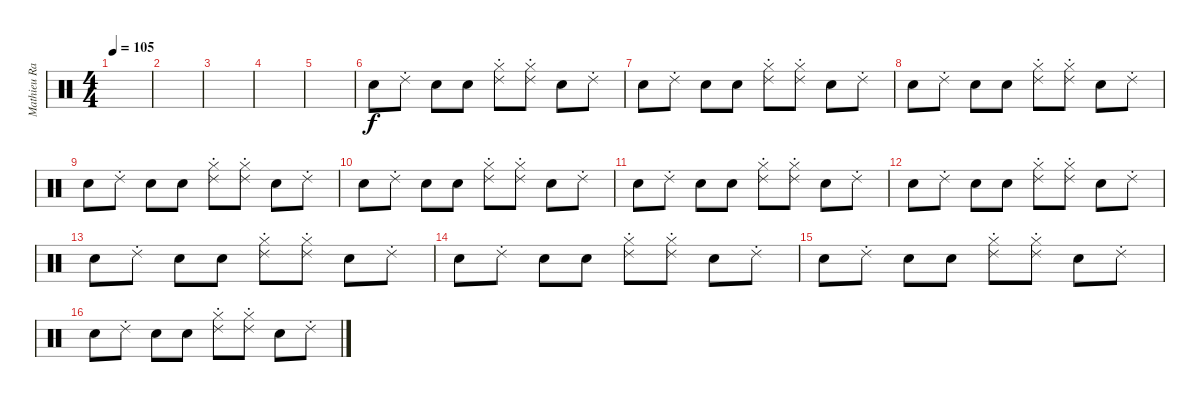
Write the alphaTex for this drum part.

\track ("Mathieu Rabaté (batterie)" "Mathieu Ra") {instrument percussion}
\staff {score}
\articulation defaults
\ts (4 4)
\tempo 105
\clef neutral
\ks c
|
|
|
|
|
"Snare (hit) 2".8 "Ride (choke) 2".8 "Electric Snare (hit)".8 "Electric Snare (hit)".8 ("Hi-Hat (closed)" "Ride (choke) 2").8 ("Hi-Hat (closed)" "Ride (choke) 2").8 "Electric Snare (hit)".8 "Ride (choke) 2".8 |
"Snare (hit) 2".8 "Ride (choke) 2".8 "Electric Snare (hit)".8 "Electric Snare (hit)".8 ("Hi-Hat (closed)" "Ride (choke) 2").8 ("Hi-Hat (closed)" "Ride (choke) 2").8 "Electric Snare (hit)".8 "Ride (choke) 2".8 |
"Snare (hit) 2".8 "Ride (choke) 2".8 "Electric Snare (hit)".8 "Electric Snare (hit)".8 ("Hi-Hat (closed)" "Ride (choke) 2").8 ("Hi-Hat (closed)" "Ride (choke) 2").8 "Electric Snare (hit)".8 "Ride (choke) 2".8 |
"Snare (hit) 2".8 "Ride (choke) 2".8 "Electric Snare (hit)".8 "Electric Snare (hit)".8 ("Hi-Hat (closed)" "Ride (choke) 2").8 ("Hi-Hat (closed)" "Ride (choke) 2").8 "Electric Snare (hit)".8 "Ride (choke) 2".8 |
"Snare (hit) 2".8 "Ride (choke) 2".8 "Electric Snare (hit)".8 "Electric Snare (hit)".8 ("Hi-Hat (closed)" "Ride (choke) 2").8 ("Hi-Hat (closed)" "Ride (choke) 2").8 "Electric Snare (hit)".8 "Ride (choke) 2".8 |
"Snare (hit) 2".8 "Ride (choke) 2".8 "Electric Snare (hit)".8 "Electric Snare (hit)".8 ("Hi-Hat (closed)" "Ride (choke) 2").8 ("Hi-Hat (closed)" "Ride (choke) 2").8 "Electric Snare (hit)".8 "Ride (choke) 2".8 |
"Snare (hit) 2".8 "Ride (choke) 2".8 "Electric Snare (hit)".8 "Electric Snare (hit)".8 ("Hi-Hat (closed)" "Ride (choke) 2").8 ("Hi-Hat (closed)" "Ride (choke) 2").8 "Electric Snare (hit)".8 "Ride (choke) 2".8 |
"Snare (hit) 2".8 "Ride (choke) 2".8 "Electric Snare (hit)".8 "Electric Snare (hit)".8 ("Hi-Hat (closed)" "Ride (choke) 2").8 ("Hi-Hat (closed)" "Ride (choke) 2").8 "Electric Snare (hit)".8 "Ride (choke) 2".8 |
"Snare (hit) 2".8 "Ride (choke) 2".8 "Electric Snare (hit)".8 "Electric Snare (hit)".8 ("Hi-Hat (closed)" "Ride (choke) 2").8 ("Hi-Hat (closed)" "Ride (choke) 2").8 "Electric Snare (hit)".8 "Ride (choke) 2".8 |
"Snare (hit) 2".8 "Ride (choke) 2".8 "Electric Snare (hit)".8 "Electric Snare (hit)".8 ("Hi-Hat (closed)" "Ride (choke) 2").8 ("Hi-Hat (closed)" "Ride (choke) 2").8 "Electric Snare (hit)".8 "Ride (choke) 2".8 |
"Snare (hit) 2".8 "Ride (choke) 2".8 "Electric Snare (hit)".8 "Electric Snare (hit)".8 ("Hi-Hat (closed)" "Ride (choke) 2").8 ("Hi-Hat (closed)" "Ride (choke) 2").8 "Electric Snare (hit)".8 "Ride (choke) 2".8
